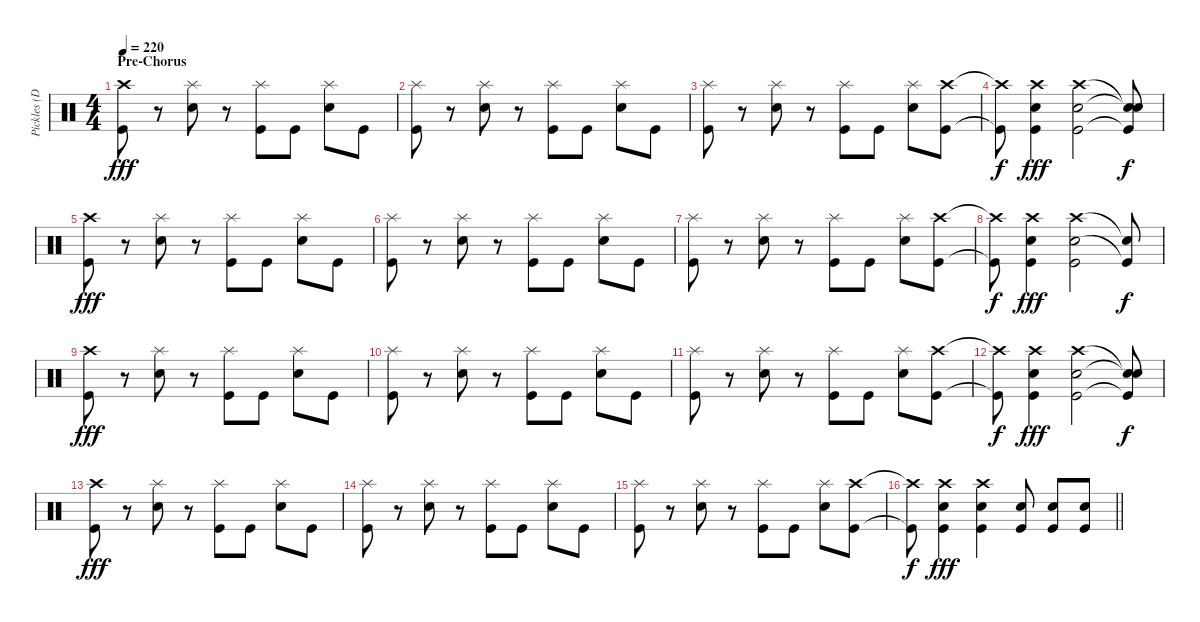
\track ("Pickles (Drums)" "Pickles (D") {instrument percussion}
\staff {score}
\articulation defaults
\ts (4 4)
\section ("" "Pre-Chorus")
\tempo 220
\clef neutral
\ks c
("Crash high (hit)" "Kick (hit)").8{dy fff} r.8 ("Splash (hit)" "Electric Snare (hit)").8 r.8 ("Splash (hit)" "Kick (hit)").8 "Kick (hit)".8 ("Splash (hit)" "Electric Snare (hit)").8 "Kick (hit)".8 |
("Splash (hit)" "Kick (hit)").8 r.8 ("Splash (hit)" "Electric Snare (hit)").8 r.8 ("Splash (hit)" "Kick (hit)").8 "Kick (hit)".8 ("Splash (hit)" "Electric Snare (hit)").8 "Kick (hit)".8 |
("Splash (hit)" "Kick (hit)").8 r.8 ("Splash (hit)" "Electric Snare (hit)").8 r.8 ("Splash (hit)" "Kick (hit)").8 "Kick (hit)".8 ("Splash (hit)" "Electric Snare (hit)").8 ("Crash high (hit)" "Kick (hit)").8 |
("Crash high (hit)"{t} "Kick (hit)"{t}).8{dy f} ("Crash high (hit)" "Electric Snare (hit)" "Kick (hit)").4{dy fff} ("Crash high (hit)" "Electric Snare (hit)" "Kick (hit)").2 ("Snare (hit)"{t} "Electric Snare (hit)"{t} "Kick (hit)"{t}).8{dy f} |
("Crash high (hit)" "Kick (hit)").8{dy fff} r.8 ("Splash (hit)" "Electric Snare (hit)").8 r.8 ("Splash (hit)" "Kick (hit)").8 "Kick (hit)".8 ("Splash (hit)" "Electric Snare (hit)").8 "Kick (hit)".8 |
("Splash (hit)" "Kick (hit)").8 r.8 ("Splash (hit)" "Electric Snare (hit)").8 r.8 ("Splash (hit)" "Kick (hit)").8 "Kick (hit)".8 ("Splash (hit)" "Electric Snare (hit)").8 "Kick (hit)".8 |
("Splash (hit)" "Kick (hit)").8 r.8 ("Splash (hit)" "Electric Snare (hit)").8 r.8 ("Splash (hit)" "Kick (hit)").8 "Kick (hit)".8 ("Splash (hit)" "Electric Snare (hit)").8 ("Crash high (hit)" "Kick (hit)").8 |
("Crash high (hit)"{t} "Kick (hit)"{t}).8{dy f} ("Crash high (hit)" "Electric Snare (hit)" "Kick (hit)").4{dy fff} ("Crash high (hit)" "Electric Snare (hit)" "Kick (hit)").2 ("Snare (hit)"{t} "Kick (hit)"{t}).8{dy f} |
("Crash high (hit)" "Kick (hit)").8{dy fff} r.8 ("Splash (hit)" "Electric Snare (hit)").8 r.8 ("Splash (hit)" "Kick (hit)").8 "Kick (hit)".8 ("Splash (hit)" "Electric Snare (hit)").8 "Kick (hit)".8 |
("Splash (hit)" "Kick (hit)").8 r.8 ("Splash (hit)" "Electric Snare (hit)").8 r.8 ("Splash (hit)" "Kick (hit)").8 "Kick (hit)".8 ("Splash (hit)" "Electric Snare (hit)").8 "Kick (hit)".8 |
("Splash (hit)" "Kick (hit)").8 r.8 ("Splash (hit)" "Electric Snare (hit)").8 r.8 ("Splash (hit)" "Kick (hit)").8 "Kick (hit)".8 ("Splash (hit)" "Electric Snare (hit)").8 ("Crash high (hit)" "Kick (hit)").8 |
("Crash high (hit)"{t} "Kick (hit)"{t}).8{dy f} ("Crash high (hit)" "Electric Snare (hit)" "Kick (hit)").4{dy fff} ("Crash high (hit)" "Electric Snare (hit)" "Kick (hit)").2 ("Snare (hit)"{t} "Electric Snare (hit)"{t} "Kick (hit)"{t}).8{dy f} |
("Crash high (hit)" "Kick (hit)").8{dy fff} r.8 ("Splash (hit)" "Electric Snare (hit)").8 r.8 ("Splash (hit)" "Kick (hit)").8 "Kick (hit)".8 ("Splash (hit)" "Electric Snare (hit)").8 "Kick (hit)".8 |
("Splash (hit)" "Kick (hit)").8 r.8 ("Splash (hit)" "Electric Snare (hit)").8 r.8 ("Splash (hit)" "Kick (hit)").8 "Kick (hit)".8 ("Splash (hit)" "Electric Snare (hit)").8 "Kick (hit)".8 |
("Splash (hit)" "Kick (hit)").8 r.8 ("Splash (hit)" "Electric Snare (hit)").8 r.8 ("Splash (hit)" "Kick (hit)").8 "Kick (hit)".8 ("Splash (hit)" "Electric Snare (hit)").8 ("Crash high (hit)" "Kick (hit)").8 |
\barLineRight lightlight
("Crash high (hit)"{t} "Kick (hit)"{t}).8{dy f} ("Crash high (hit)" "Electric Snare (hit)" "Kick (hit)").4{dy fff} ("Crash high (hit)" "Electric Snare (hit)" "Kick (hit)").4 ("Electric Snare (hit)" "Kick (hit)").8 ("Electric Snare (hit)" "Kick (hit)").8 ("Electric Snare (hit)" "Kick (hit)").8
